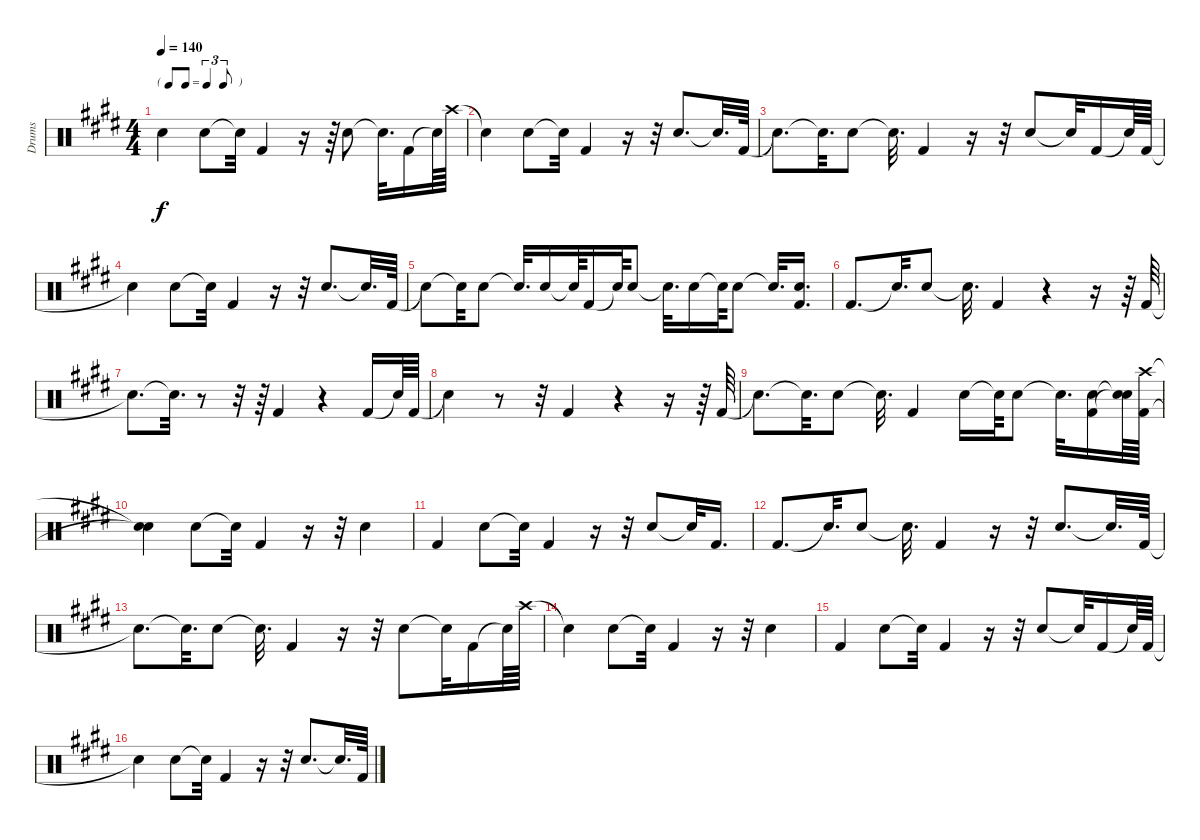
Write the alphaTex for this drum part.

\track ("Drums" "Drums") {instrument percussion}
\staff {score}
\articulation defaults
\ts (4 4)
\tf triplet8th
\tempo 140
\clef neutral
\ks e "Snare (hit)"{t}.4{dy f} "Snare (hit) 2".8 "Snare (hit)"{t}.32 "Kick (hit) 2".4
r.16 r.64 "Snare (hit) 2".8 "Snare (hit)"{t}.32{d} "Kick (hit) 2".16 "Snare (hit)"{t}.64 "Crash high (hit)".64 |
"Snare (hit)"{t}.4 "Snare (hit) 2".8 "Snare (hit)"{t}.32 "Kick (hit) 2".4 r.16 r.32 "Snare (hit) 2".8{d} "Snare (hit)"{t}.32{d} "Kick (hit) 2".64 |
"Snare (hit)"{t}.8{d} "Snare (hit)"{t}.32{d} "Snare (hit) 2".8 "Snare (hit)"{t}.32{d} "Kick (hit) 2".4 r.16 r.32 "Snare (hit) 2".8 "Snare (hit)"{t}.32 "Kick (hit) 2".16 "Snare (hit)"{t}.64 "Kick (hit) 2".64 |
"Snare (hit)"{t}.4 "Snare (hit) 2".8 "Snare (hit)"{t}.32 "Kick (hit) 2".4 r.16 r.32 "Snare (hit) 2".8{d} "Snare (hit)"{t}.32{d} "Kick (hit) 2".64 |
"Snare (hit)"{t}.8 "Snare (hit)"{t}.32 "Snare (hit) 2".8 "Snare (hit)"{t}.32{d} "Snare (hit) 2".16 "Snare (hit)"{t}.64 "Kick (hit) 2".16 "Snare (hit)"{t}.64 "Snare (hit) 2".8 "Snare (hit)"{t}.32{d} "Snare (hit) 2".16 "Snare (hit)"{t}.64 "Snare (hit) 2".8 "Snare (hit)"{t}.32{d} ("Kick (hit) 2" "Snare (hit) 2").16{d} |
"Kick (hit) 2".8{d} "Snare (hit)"{t}.32{d} "Snare (hit) 2".8 "Snare (hit)"{t}.32{d} "Kick (hit) 2".4 r.4 r.16 r.64 "Kick (hit) 2".64 |
"Snare (hit)"{t}.8{d} "Snare (hit)"{t}.32{d} r.8 r.32 r.64 "Kick (hit) 2".4 r.4 "Kick (hit) 2".16 "Snare (hit)"{t}.64 "Kick (hit) 2".64 |
"Snare (hit)"{t}.4 r.8 r.32 "Kick (hit) 2".4 r.4 r.16 r.64 "Kick (hit) 2".64 |
"Snare (hit)"{t}.8{d} "Snare (hit)"{t}.32{d} "Snare (hit) 2".8 "Snare (hit)"{t}.32{d} "Kick (hit) 2".4 "Snare (hit) 2".16 "Snare (hit)"{t}.64 "Snare (hit) 2".8 "Snare (hit)"{t}.32{d} ("Kick (hit) 2" "Snare (hit) 2").16 ("Snare (hit)"{t} "Snare (hit)"{t}).64 ("Kick (hit) 2" "Crash high (hit)").64 |
("Snare (hit)"{t} "Snare (hit)"{t}).4 "Snare (hit) 2".8 "Snare (hit)"{t}.32 "Kick (hit) 2".4 r.16 r.32 "Snare (hit) 2".4 |
"Kick (hit) 2".4 "Snare (hit) 2".8 "Snare (hit)"{t}.32 "Kick (hit) 2".4 r.16 r.32 "Snare (hit) 2".8 "Snare (hit)"{t}.32 "Kick (hit) 2".16{d} |
"Kick (hit) 2".8{d} "Snare (hit)"{t}.32{d} "Snare (hit) 2".8 "Snare (hit)"{t}.32{d} "Kick (hit) 2".4 r.16 r.32 "Snare (hit) 2".8{d} "Snare (hit)"{t}.32{d} "Kick (hit) 2".64 |
"Snare (hit)"{t}.8{d} "Snare (hit)"{t}.32{d} "Snare (hit) 2".8 "Snare (hit)"{t}.32{d} "Kick (hit) 2".4 r.16 r.32 "Snare (hit) 2".8 "Snare (hit)"{t}.32 "Kick (hit) 2".16 "Snare (hit)"{t}.64 "Crash high (hit)".64 |
"Snare (hit)"{t}.4 "Snare (hit) 2".8 "Snare (hit)"{t}.32 "Kick (hit) 2".4 r.16 r.32 "Snare (hit) 2".4 |
"Kick (hit) 2".4 "Snare (hit) 2".8 "Snare (hit)"{t}.32 "Kick (hit) 2".4 r.16 r.32 "Snare (hit) 2".8 "Snare (hit)"{t}.32 "Kick (hit) 2".16 "Snare (hit)"{t}.64 "Kick (hit) 2".64 |
"Snare (hit)"{t}.4 "Snare (hit) 2".8 "Snare (hit)"{t}.32 "Kick (hit) 2".4 r.16 r.32 "Snare (hit) 2".8{d} "Snare (hit)"{t}.32{d} "Kick (hit) 2".64
